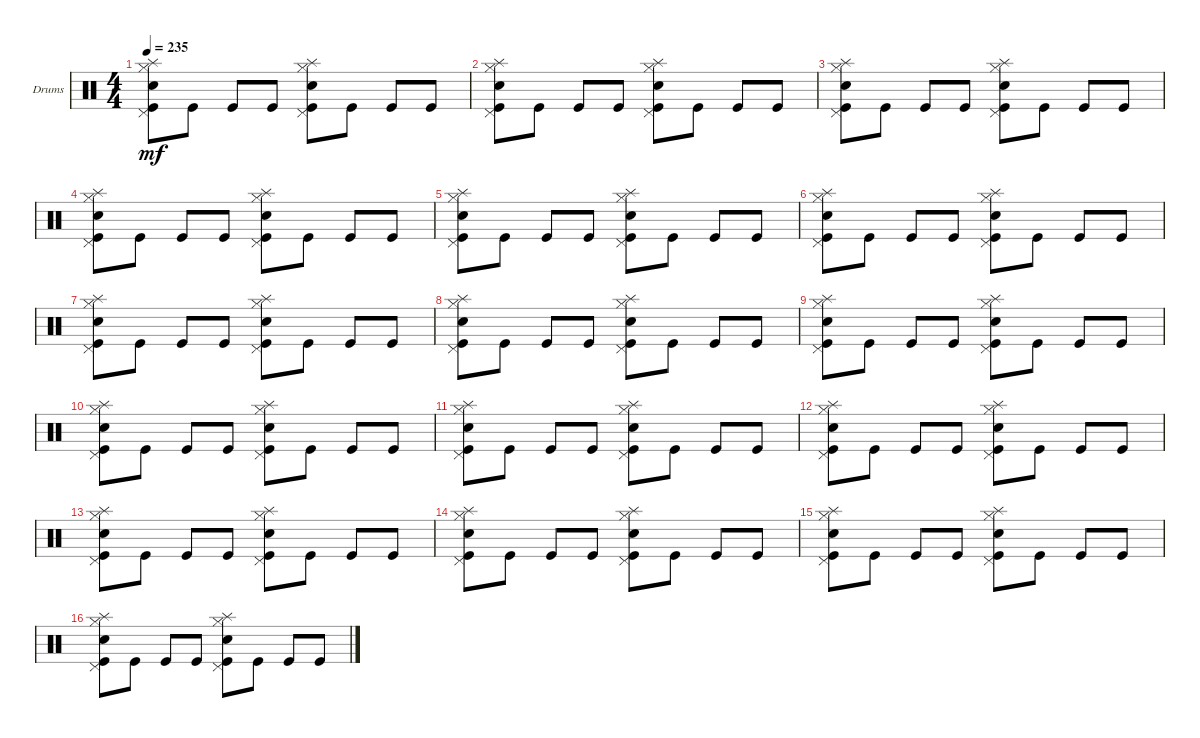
\defaultSystemsLayout 4
\bracketExtendMode groupsimilarinstruments
\firstSystemTrackNameOrientation horizontal
\otherSystemsTrackNameOrientation horizontal
\track ("Drumkit" "Drums") {instrument percussion}
\staff {score}
\articulation defaults
\ts (4 4)
\tempo 235
\clef neutral
\scale
0.333333
\ks c
("Kick (hit)" "Snare (hit) 2" "Pedal Hi-Hat (hit)" "Hi-Hat (closed)" "Splash (hit)").8{dy mf} "Kick (hit)".8 "Kick (hit)".8 "Kick (hit)".8 ("Kick (hit)" "Pedal Hi-Hat (hit)" "Snare (hit) 2" "Hi-Hat (closed)" "Splash (hit)").8 "Kick (hit)".8 "Kick (hit)".8 "Kick (hit)".8 |
\scale
0.333333 ("Kick (hit)" "Snare (hit) 2" "Pedal Hi-Hat (hit)" "Hi-Hat (closed)" "Splash (hit)").8 "Kick (hit)".8 "Kick (hit)".8 "Kick (hit)".8 ("Kick (hit)" "Pedal Hi-Hat (hit)" "Snare (hit) 2" "Hi-Hat (closed)" "Splash (hit)").8 "Kick (hit)".8 "Kick (hit)".8 "Kick (hit)".8 |
\scale
0.333333 ("Kick (hit)" "Snare (hit) 2" "Pedal Hi-Hat (hit)" "Hi-Hat (closed)" "Splash (hit)").8 "Kick (hit)".8 "Kick (hit)".8 "Kick (hit)".8 ("Kick (hit)" "Pedal Hi-Hat (hit)" "Snare (hit) 2" "Hi-Hat (closed)" "Splash (hit)").8 "Kick (hit)".8 "Kick (hit)".8 "Kick (hit)".8 |
\scale
0.333333 ("Kick (hit)" "Snare (hit) 2" "Pedal Hi-Hat (hit)" "Hi-Hat (closed)" "Splash (hit)").8 "Kick (hit)".8 "Kick (hit)".8 "Kick (hit)".8 ("Kick (hit)" "Pedal Hi-Hat (hit)" "Snare (hit) 2" "Hi-Hat (closed)" "Splash (hit)").8 "Kick (hit)".8 "Kick (hit)".8 "Kick (hit)".8 |
\scale
0.333333 ("Kick (hit)" "Snare (hit) 2" "Pedal Hi-Hat (hit)" "Hi-Hat (closed)" "Splash (hit)").8 "Kick (hit)".8 "Kick (hit)".8 "Kick (hit)".8 ("Kick (hit)" "Pedal Hi-Hat (hit)" "Snare (hit) 2" "Hi-Hat (closed)" "Splash (hit)").8 "Kick (hit)".8 "Kick (hit)".8 "Kick (hit)".8 |
\scale
0.333333 ("Kick (hit)" "Snare (hit) 2" "Pedal Hi-Hat (hit)" "Hi-Hat (closed)" "Splash (hit)").8 "Kick (hit)".8 "Kick (hit)".8 "Kick (hit)".8 ("Kick (hit)" "Pedal Hi-Hat (hit)" "Snare (hit) 2" "Hi-Hat (closed)" "Splash (hit)").8 "Kick (hit)".8 "Kick (hit)".8 "Kick (hit)".8 |
\scale
0.333333 ("Kick (hit)" "Snare (hit) 2" "Pedal Hi-Hat (hit)" "Hi-Hat (closed)" "Splash (hit)").8 "Kick (hit)".8 "Kick (hit)".8 "Kick (hit)".8 ("Kick (hit)" "Pedal Hi-Hat (hit)" "Snare (hit) 2" "Hi-Hat (closed)" "Splash (hit)").8 "Kick (hit)".8 "Kick (hit)".8 "Kick (hit)".8 |
\scale
0.333333 ("Kick (hit)" "Snare (hit) 2" "Pedal Hi-Hat (hit)" "Hi-Hat (closed)" "Splash (hit)").8 "Kick (hit)".8 "Kick (hit)".8 "Kick (hit)".8 ("Kick (hit)" "Pedal Hi-Hat (hit)" "Snare (hit) 2" "Hi-Hat (closed)" "Splash (hit)").8 "Kick (hit)".8 "Kick (hit)".8 "Kick (hit)".8 |
\scale
0.333333 ("Kick (hit)" "Snare (hit) 2" "Pedal Hi-Hat (hit)" "Hi-Hat (closed)" "Splash (hit)").8 "Kick (hit)".8 "Kick (hit)".8 "Kick (hit)".8 ("Kick (hit)" "Pedal Hi-Hat (hit)" "Snare (hit) 2" "Hi-Hat (closed)" "Splash (hit)").8 "Kick (hit)".8 "Kick (hit)".8 "Kick (hit)".8 |
\scale
0.333333 ("Kick (hit)" "Snare (hit) 2" "Pedal Hi-Hat (hit)" "Hi-Hat (closed)" "Splash (hit)").8 "Kick (hit)".8 "Kick (hit)".8 "Kick (hit)".8 ("Kick (hit)" "Pedal Hi-Hat (hit)" "Snare (hit) 2" "Hi-Hat (closed)" "Splash (hit)").8 "Kick (hit)".8 "Kick (hit)".8 "Kick (hit)".8 |
\scale
0.333333 ("Kick (hit)" "Snare (hit) 2" "Pedal Hi-Hat (hit)" "Hi-Hat (closed)" "Splash (hit)").8 "Kick (hit)".8 "Kick (hit)".8 "Kick (hit)".8 ("Kick (hit)" "Pedal Hi-Hat (hit)" "Snare (hit) 2" "Hi-Hat (closed)" "Splash (hit)").8 "Kick (hit)".8 "Kick (hit)".8 "Kick (hit)".8 |
\scale
0.333333 ("Kick (hit)" "Snare (hit) 2" "Pedal Hi-Hat (hit)" "Hi-Hat (closed)" "Splash (hit)").8 "Kick (hit)".8 "Kick (hit)".8 "Kick (hit)".8 ("Kick (hit)" "Pedal Hi-Hat (hit)" "Snare (hit) 2" "Hi-Hat (closed)" "Splash (hit)").8 "Kick (hit)".8 "Kick (hit)".8 "Kick (hit)".8 |
\scale
0.333333 ("Kick (hit)" "Snare (hit) 2" "Pedal Hi-Hat (hit)" "Hi-Hat (closed)" "Splash (hit)").8 "Kick (hit)".8 "Kick (hit)".8 "Kick (hit)".8 ("Kick (hit)" "Pedal Hi-Hat (hit)" "Snare (hit) 2" "Hi-Hat (closed)" "Splash (hit)").8 "Kick (hit)".8 "Kick (hit)".8 "Kick (hit)".8 |
\scale
0.333333 ("Kick (hit)" "Snare (hit) 2" "Pedal Hi-Hat (hit)" "Hi-Hat (closed)" "Splash (hit)").8 "Kick (hit)".8 "Kick (hit)".8 "Kick (hit)".8 ("Kick (hit)" "Pedal Hi-Hat (hit)" "Snare (hit) 2" "Hi-Hat (closed)" "Splash (hit)").8 "Kick (hit)".8 "Kick (hit)".8 "Kick (hit)".8 |
\scale
0.333333 ("Kick (hit)" "Snare (hit) 2" "Pedal Hi-Hat (hit)" "Hi-Hat (closed)" "Splash (hit)").8 "Kick (hit)".8 "Kick (hit)".8 "Kick (hit)".8 ("Kick (hit)" "Pedal Hi-Hat (hit)" "Snare (hit) 2" "Hi-Hat (closed)" "Splash (hit)").8 "Kick (hit)".8 "Kick (hit)".8 "Kick (hit)".8 |
\scale
0.333333 ("Kick (hit)" "Snare (hit) 2" "Pedal Hi-Hat (hit)" "Hi-Hat (closed)" "Splash (hit)").8 "Kick (hit)".8 "Kick (hit)".8 "Kick (hit)".8 ("Kick (hit)" "Pedal Hi-Hat (hit)" "Snare (hit) 2" "Hi-Hat (closed)" "Splash (hit)").8 "Kick (hit)".8 "Kick (hit)".8 "Kick (hit)".8
